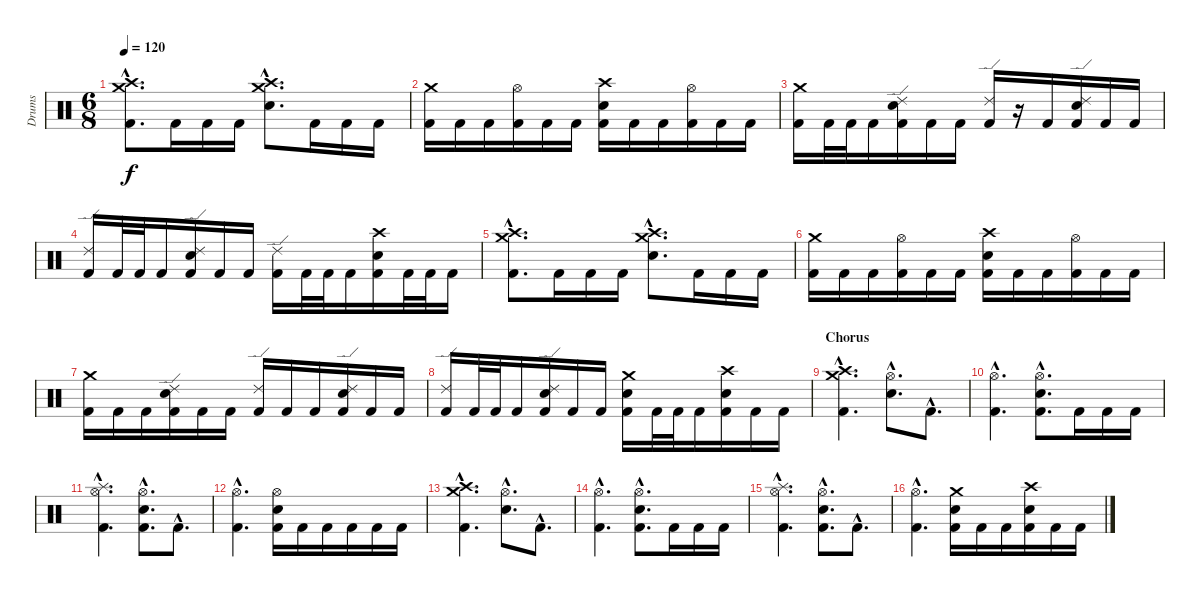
\track ("Drums" "Drums") {instrument percussion}
\staff {score}
\articulation defaults
\ts (6 8)
\tempo 120
\clef neutral
\ks c
("Crash medium (hit)"{hac} "Crash high (hit)"{hac} "Kick (hit) 2"{hac}).8{d dy f} "Kick (hit) 2".16 "Kick (hit) 2".16 "Kick (hit) 2".16 ("Crash high (hit)"{hac} "Crash medium (hit)"{hac} "Snare (hit) 2"{hac}).8{d} "Kick (hit) 2".16 "Kick (hit) 2".16 "Kick (hit) 2".16 |
("Crash medium (hit)" "Kick (hit) 2").16 "Kick (hit) 2".16 "Kick (hit) 2".16 ("Hi-Hat (open)" "Kick (hit) 2").16 "Kick (hit) 2".16 "Kick (hit) 2".16 ("Crash high (hit)" "Snare (hit) 2" "Kick (hit) 2").16 "Kick (hit) 2".16 "Kick (hit) 2".16 ("Hi-Hat (open)" "Kick (hit) 2").16 "Kick (hit) 2".16 "Kick (hit) 2".16 |
("Crash medium (hit)" "Kick (hit) 2").16 "Kick (hit) 2".32 "Kick (hit) 2".32 "Kick (hit) 2".16 ("Ride (edge) 2" "Snare (hit) 2" "Kick (hit) 2").16 "Kick (hit) 2".16 "Kick (hit) 2".16 ("Ride (edge) 2" "Kick (hit) 2").16 r.16 "Kick (hit) 2".16 ("Ride (edge) 2" "Snare (hit) 2" "Kick (hit) 2").16 "Kick (hit) 2".16 "Kick (hit) 2".16 |
("Ride (edge) 2" "Kick (hit) 2").16 "Kick (hit) 2".32 "Kick (hit) 2".32 "Kick (hit) 2".16 ("Ride (edge) 2" "Snare (hit) 2" "Kick (hit) 2").16 "Kick (hit) 2".16 "Kick (hit) 2".16 ("Ride (edge) 2" "Kick (hit) 2").16 "Kick (hit) 2".32 "Kick (hit) 2".32 "Kick (hit) 2".16 ("Crash high (hit)" "Snare (hit) 2" "Kick (hit) 2").16 "Kick (hit) 2".32 "Kick (hit) 2".32 "Kick (hit) 2".16 |
("Crash medium (hit)"{hac} "Crash high (hit)"{hac} "Kick (hit) 2"{hac}).8{d} "Kick (hit) 2".16 "Kick (hit) 2".16 "Kick (hit) 2".16 ("Crash high (hit)"{hac} "Crash medium (hit)"{hac} "Snare (hit) 2"{hac}).8{d} "Kick (hit) 2".16 "Kick (hit) 2".16 "Kick (hit) 2".16 |
("Crash medium (hit)" "Kick (hit) 2").16 "Kick (hit) 2".16 "Kick (hit) 2".16 ("Hi-Hat (open)" "Kick (hit) 2").16 "Kick (hit) 2".16 "Kick (hit) 2".16 ("Crash high (hit)" "Snare (hit) 2" "Kick (hit) 2").16 "Kick (hit) 2".16 "Kick (hit) 2".16 ("Hi-Hat (open)" "Kick (hit) 2").16 "Kick (hit) 2".16 "Kick (hit) 2".16 |
("Crash medium (hit)" "Kick (hit) 2").16 "Kick (hit) 2".16 "Kick (hit) 2".16 ("Ride (edge) 2" "Snare (hit) 2" "Kick (hit) 2").16 "Kick (hit) 2".16 "Kick (hit) 2".16 ("Ride (edge) 2" "Kick (hit) 2").16 "Kick (hit) 2".16 "Kick (hit) 2".16 ("Ride (edge) 2" "Snare (hit) 2" "Kick (hit) 2").16 "Kick (hit) 2".16 "Kick (hit) 2".16 |
("Ride (edge) 2" "Kick (hit) 2").16 "Kick (hit) 2".32 "Kick (hit) 2".32 "Kick (hit) 2".16 ("Ride (edge) 2" "Snare (hit) 2" "Kick (hit) 2").16 "Kick (hit) 2".16 "Kick (hit) 2".16 ("Crash medium (hit)" "Snare (hit) 2" "Kick (hit) 2").16 "Kick (hit) 2".32 "Kick (hit) 2".32 "Kick (hit) 2".16 ("Crash high (hit)" "Snare (hit) 2" "Kick (hit) 2").16 "Kick (hit) 2".16 "Kick (hit) 2".16 |
\section ("" "Chorus")
("Crash medium (hit)"{hac} "Crash high (hit)"{hac} "Kick (hit) 2"{hac}).4{d} ("Hi-Hat (open)"{hac} "Snare (hit) 2"{hac}).8{d} "Kick (hit) 2"{hac}.8{d} |
("Hi-Hat (open)"{hac} "Kick (hit) 2"{hac}).4{d} ("Hi-Hat (open)"{hac} "Snare (hit) 2"{hac} "Kick (hit) 2"{hac}).8{d} "Kick (hit) 2".16 "Kick (hit) 2".16 "Kick (hit) 2".16 |
("Hi-Hat (open)"{hac} "Splash (hit)"{hac} "Kick (hit) 2"{hac}).4{d} ("Hi-Hat (open)"{hac} "Snare (hit) 2"{hac} "Kick (hit) 2"{hac}).8{d} "Kick (hit) 2"{hac}.8{d} |
("Hi-Hat (open)"{hac} "Kick (hit) 2"{hac}).4{d} ("Hi-Hat (open)" "Snare (hit) 2" "Kick (hit) 2").16 "Kick (hit) 2".16 "Kick (hit) 2".16 "Kick (hit) 2".16 "Kick (hit) 2".16 "Kick (hit) 2".16 |
("Crash medium (hit)"{hac} "Crash high (hit)"{hac} "Kick (hit) 2"{hac}).4{d} ("Hi-Hat (open)"{hac} "Snare (hit) 2"{hac}).8{d} "Kick (hit) 2"{hac}.8{d} |
("Hi-Hat (open)"{hac} "Kick (hit) 2"{hac}).4{d} ("Hi-Hat (open)"{hac} "Snare (hit) 2"{hac} "Kick (hit) 2"{hac}).8{d} "Kick (hit) 2".16 "Kick (hit) 2".16 "Kick (hit) 2".16 |
("Hi-Hat (open)"{hac} "Splash (hit)"{hac} "Kick (hit) 2"{hac}).4{d} ("Hi-Hat (open)"{hac} "Snare (hit) 2"{hac} "Kick (hit) 2"{hac}).8{d} "Kick (hit) 2"{hac}.8{d} |
("Hi-Hat (open)"{hac} "Kick (hit) 2"{hac}).4{d} ("Crash medium (hit)" "Snare (hit) 2" "Kick (hit) 2").16 "Kick (hit) 2".16 "Kick (hit) 2".16 ("Crash high (hit)" "Snare (hit) 2" "Kick (hit) 2").16 "Kick (hit) 2".16 "Kick (hit) 2".16
